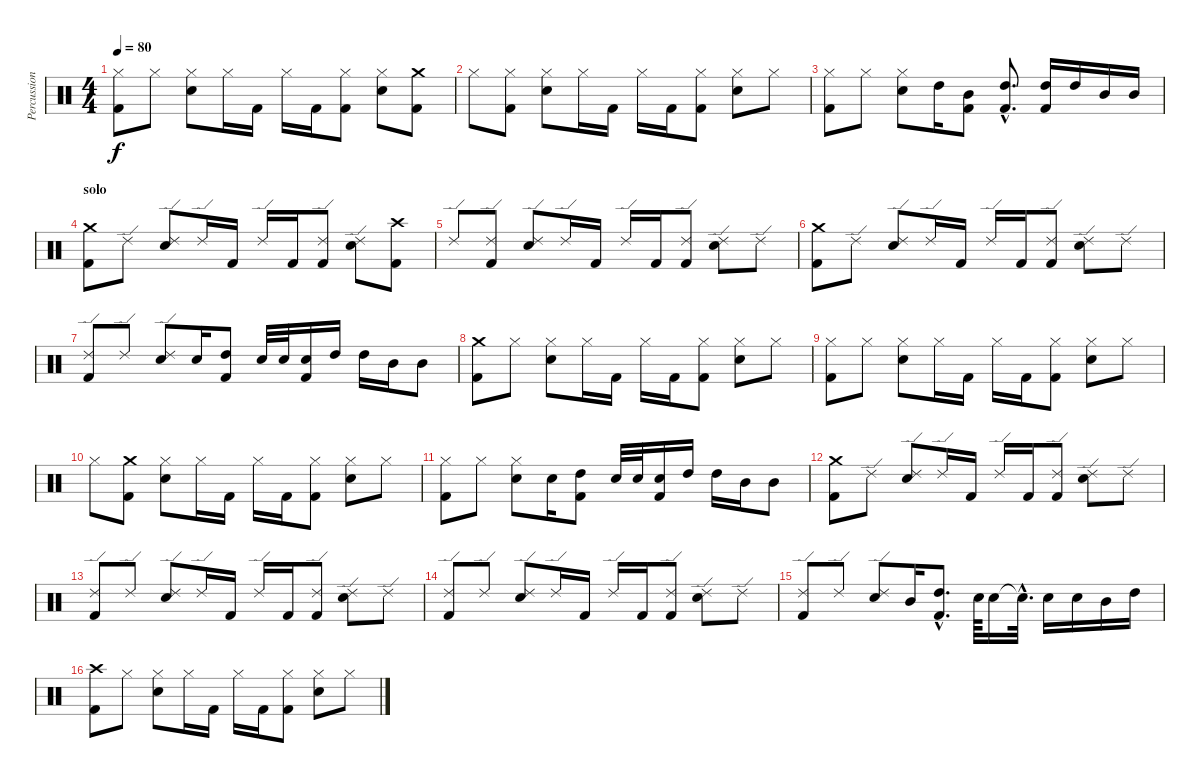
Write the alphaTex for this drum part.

\track ("Percussion" "Percussion") {instrument percussion}
\staff {score}
\articulation defaults
\ts (4 4)
\tempo 80
\clef neutral
\ks c
("Hi-Hat (closed)" "Kick (hit) 2").8{dy f} "Hi-Hat (closed)".8 ("Hi-Hat (closed)" "Snare (hit) 2").8 "Hi-Hat (closed)".16 "Kick (hit) 2".16 "Hi-Hat (closed)".16 "Kick (hit) 2".16 ("Hi-Hat (closed)" "Kick (hit) 2").8 ("Hi-Hat (closed)" "Snare (hit) 2").8 ("Crash medium (hit)" "Kick (hit) 2").8 |
"Hi-Hat (closed)".8 ("Hi-Hat (closed)" "Kick (hit) 2").8 ("Hi-Hat (closed)" "Snare (hit) 2").8 "Hi-Hat (closed)".16 "Kick (hit) 2".16 "Hi-Hat (closed)".16 "Kick (hit) 2".16 ("Hi-Hat (closed)" "Kick (hit) 2").8 ("Hi-Hat (closed)" "Snare (hit) 2").8 "Hi-Hat (closed)".8 |
("Hi-Hat (closed)" "Kick (hit) 2").8 "Hi-Hat (closed)".8 ("Hi-Hat (closed)" "Snare (hit) 2").8 "High Tom (hit)".16 ("Mid Tom (hit)" "Kick (hit) 2").8 ("High Tom (hit)"{hac} "Kick (hit) 2"{hac}).8{d} ("High Tom (hit)" "Kick (hit) 2").16 "High Tom (hit)".16 "Mid Tom (hit)".16 "Mid Tom (hit)".16 |
\section ("" "solo")
("Crash medium (hit)" "Kick (hit) 2").8 "Ride (edge) 2".8 ("Ride (edge) 2" "Snare (hit) 2").8 "Ride (edge) 2".16 "Kick (hit) 2".16 "Ride (edge) 2".16 "Kick (hit) 2".16 ("Ride (edge) 2" "Kick (hit) 2").8 ("Ride (edge) 2" "Snare (hit) 2").8 ("Crash high (hit)" "Kick (hit) 2").8 |
"Ride (edge) 2".8 ("Ride (edge) 2" "Kick (hit) 2").8 ("Ride (edge) 2" "Snare (hit) 2").8 "Ride (edge) 2".16 "Kick (hit) 2".16 "Ride (edge) 2".16 "Kick (hit) 2".16 ("Ride (edge) 2" "Kick (hit) 2").8 ("Ride (edge) 2" "Snare (hit) 2").8 "Ride (edge) 2".8 |
("Crash medium (hit)" "Kick (hit) 2").8 "Ride (edge) 2".8 ("Ride (edge) 2" "Snare (hit) 2").8 "Ride (edge) 2".16 "Kick (hit) 2".16 "Ride (edge) 2".16 "Kick (hit) 2".16 ("Ride (edge) 2" "Kick (hit) 2").8 ("Ride (edge) 2" "Snare (hit) 2").8 "Ride (edge) 2".8 |
("Ride (edge) 2" "Kick (hit) 2").8 "Ride (edge) 2".8 ("Ride (edge) 2" "Snare (hit) 2").8 "Snare (hit) 2".16 ("High Tom (hit)" "Kick (hit) 2").8 "Snare (hit) 2".32 "Snare (hit) 2".32 ("Snare (hit) 2" "Kick (hit) 2").16 "High Tom (hit)".16 "High Tom (hit)".16 "Mid Tom (hit)".16 "Mid Tom (hit)".8 |
("Crash medium (hit)" "Kick (hit) 2").8 "Hi-Hat (closed)".8 ("Hi-Hat (closed)" "Snare (hit) 2").8 "Hi-Hat (closed)".16 "Kick (hit) 2".16 "Hi-Hat (closed)".16 "Kick (hit) 2".16 ("Hi-Hat (closed)" "Kick (hit) 2").8 ("Hi-Hat (closed)" "Snare (hit) 2").8 "Hi-Hat (closed)".8 |
("Hi-Hat (closed)" "Kick (hit) 2").8 "Hi-Hat (closed)".8 ("Hi-Hat (closed)" "Snare (hit) 2").8 "Hi-Hat (closed)".16 "Kick (hit) 2".16 "Hi-Hat (closed)".16 "Kick (hit) 2".16 ("Hi-Hat (closed)" "Kick (hit) 2").8 ("Hi-Hat (closed)" "Snare (hit) 2").8 "Hi-Hat (closed)".8 |
"Hi-Hat (closed)".8 ("Crash medium (hit)" "Kick (hit) 2").8 ("Hi-Hat (closed)" "Snare (hit) 2").8 "Hi-Hat (closed)".16 "Kick (hit) 2".16 "Hi-Hat (closed)".16 "Kick (hit) 2".16 ("Hi-Hat (closed)" "Kick (hit) 2").8 ("Hi-Hat (closed)" "Snare (hit) 2").8 "Hi-Hat (closed)".8 |
("Hi-Hat (closed)" "Kick (hit) 2").8 "Hi-Hat (closed)".8 ("Hi-Hat (closed)" "Snare (hit) 2").8 "Snare (hit) 2".16 ("High Tom (hit)" "Kick (hit) 2").8 "Snare (hit) 2".32 "Snare (hit) 2".32 ("Snare (hit) 2" "Kick (hit) 2").16 "High Tom (hit)".16 "High Tom (hit)".16 "Mid Tom (hit)".16 "Mid Tom (hit)".8 |
("Crash medium (hit)" "Kick (hit) 2").8 "Ride (edge) 2".8 ("Ride (edge) 2" "Snare (hit) 2").8 "Ride (edge) 2".16 "Kick (hit) 2".16 "Ride (edge) 2".16 "Kick (hit) 2".16 ("Ride (edge) 2" "Kick (hit) 2").8 ("Ride (edge) 2" "Snare (hit) 2").8 "Ride (edge) 2".8 |
("Ride (edge) 2" "Kick (hit) 2").8 "Ride (edge) 2".8 ("Ride (edge) 2" "Snare (hit) 2").8 "Ride (edge) 2".16 "Kick (hit) 2".16 "Ride (edge) 2".16 "Kick (hit) 2".16 ("Ride (edge) 2" "Kick (hit) 2").8 ("Ride (edge) 2" "Snare (hit) 2").8 "Ride (edge) 2".8 |
("Ride (edge) 2" "Kick (hit) 2").8 "Ride (edge) 2".8 ("Ride (edge) 2" "Snare (hit) 2").8 "Ride (edge) 2".16 "Kick (hit) 2".16 "Ride (edge) 2".16 "Kick (hit) 2".16 ("Ride (edge) 2" "Kick (hit) 2").8 ("Ride (edge) 2" "Snare (hit) 2").8 "Ride (edge) 2".8 |
("Ride (edge) 2" "Kick (hit) 2").8 "Ride (edge) 2".8 ("Ride (edge) 2" "Snare (hit) 2").8 "Mid Tom (hit)".16 ("High Tom (hit)"{hac} "Kick (hit) 2"{hac}).8{d} "Snare (hit) 2".64 "Snare (hit) 2".16 "Snare (hit)"{hac t}.32{d} "Snare (hit) 2".16 "Snare (hit) 2".16 "Mid Tom (hit)".16 "High Tom (hit)".16 |
("Crash high (hit)" "Kick (hit) 2").8 "Hi-Hat (closed)".8 ("Hi-Hat (closed)" "Snare (hit) 2").8 "Hi-Hat (closed)".16 "Kick (hit) 2".16 "Hi-Hat (closed)".16 "Kick (hit) 2".16 ("Hi-Hat (closed)" "Kick (hit) 2").8 ("Hi-Hat (closed)" "Snare (hit) 2").8 "Hi-Hat (closed)".8
